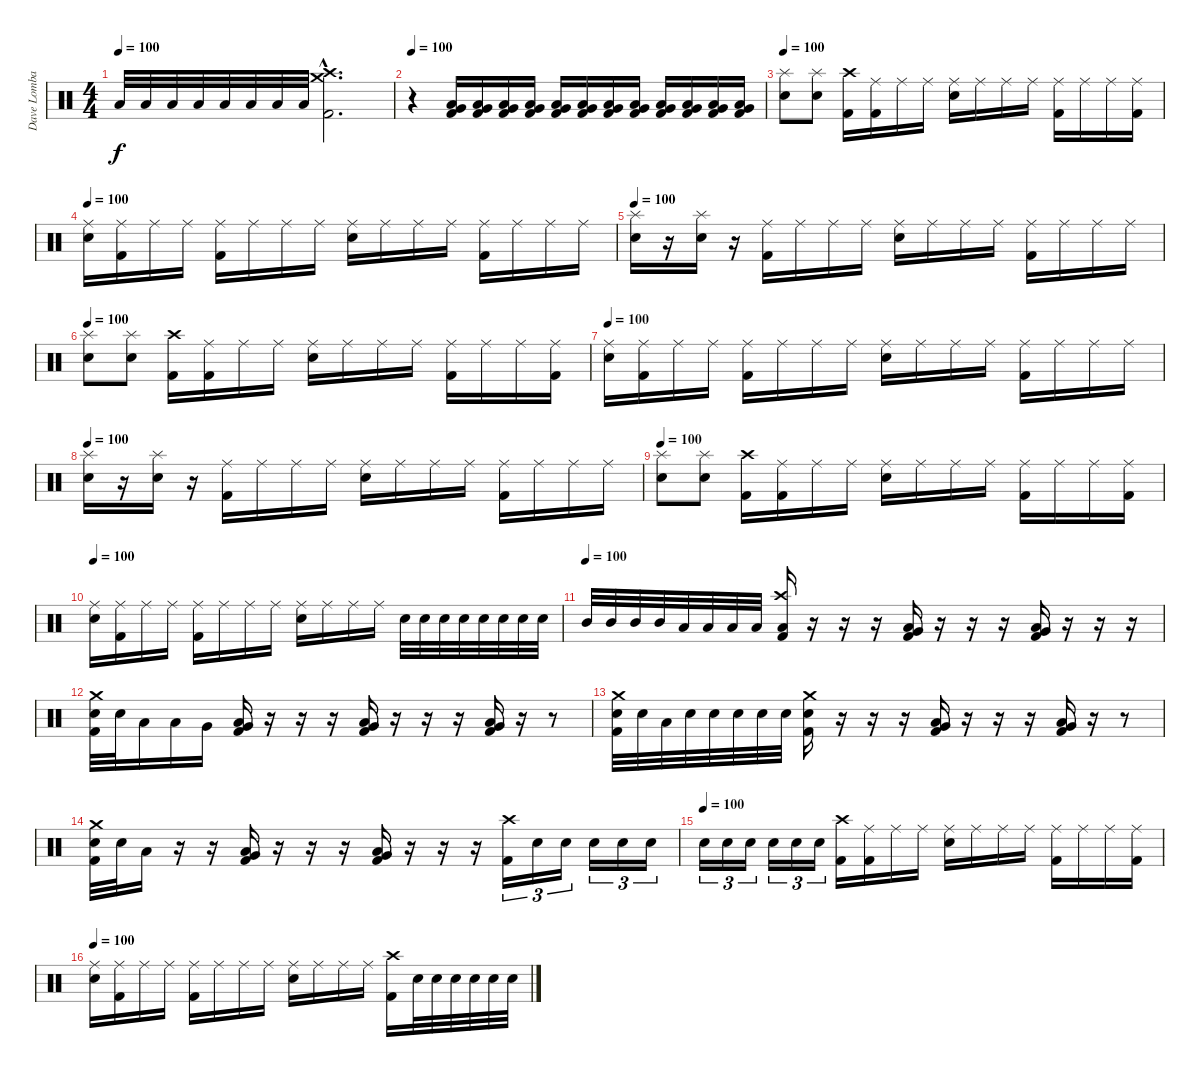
\track ("Dave Lombardo" "Dave Lomba") {instrument percussion}
\staff {score}
\articulation defaults
\ts (4 4)
\tempo 100
\clef neutral
\ks c "Low Floor Tom (hit)".32{dy f} "Low Floor Tom (hit)".32 "Low Floor Tom (hit)".32 "Low Floor Tom (hit)".32 "Low Floor Tom (hit)".32 "Low Floor Tom (hit)".32 "Low Floor Tom (hit)".32 "Low Floor Tom (hit)".32
("Crash high (hit)"{hac} "Crash medium (hit)"{hac} "Kick (hit) 2"{hac}).2{d} |
\tempo 100
r.4 ("Kick (hit) 2" "Low Floor Tom (hit)" "Very Low Tom (hit)").16 ("Kick (hit) 2" "Low Floor Tom (hit)" "Very Low Tom (hit)").16 ("Kick (hit) 2" "Low Floor Tom (hit)" "Very Low Tom (hit)").16 ("Kick (hit) 2" "Low Floor Tom (hit)" "Very Low Tom (hit)").16 ("Kick (hit) 2" "Low Floor Tom (hit)" "Very Low Tom (hit)").16 ("Kick (hit) 2" "Low Floor Tom (hit)" "Very Low Tom (hit)").16 ("Kick (hit) 2" "Low Floor Tom (hit)" "Very Low Tom (hit)").16 ("Kick (hit) 2" "Low Floor Tom (hit)" "Very Low Tom (hit)").16 ("Kick (hit) 2" "Low Floor Tom (hit)" "Very Low Tom (hit)").16 ("Kick (hit) 2" "Low Floor Tom (hit)" "Very Low Tom (hit)").16 ("Kick (hit) 2" "Low Floor Tom (hit)" "Very Low Tom (hit)").16 ("Kick (hit) 2" "Low Floor Tom (hit)" "Very Low Tom (hit)").16 |
\tempo 100
("Splash (hit)" "Electric Snare (hit)").8 ("Splash (hit)" "Electric Snare (hit)").8 ("Kick (hit) 2" "Crash high (hit)").16 ("Kick (hit) 2" "Ride (middle)").16 "Ride (middle)".16 "Ride (middle)".16 ("Electric Snare (hit)" "Ride (middle)").16 "Ride (middle)".16 "Ride (middle)".16 "Ride (middle)".16 ("Kick (hit) 2" "Ride (middle)").16 "Ride (middle)".16 "Ride (middle)".16 ("Kick (hit) 2" "Ride (middle)").16 |
\tempo 100
("Electric Snare (hit)" "Ride (middle)").16 ("Kick (hit) 2" "Ride (middle)").16 "Ride (middle)".16 "Ride (middle)".16 ("Kick (hit) 2" "Ride (middle)").16 "Ride (middle)".16 "Ride (middle)".16 "Ride (middle)".16 ("Electric Snare (hit)" "Ride (middle)").16 "Ride (middle)".16 "Ride (middle)".16 "Ride (middle)".16 ("Kick (hit) 2" "Ride (middle)").16 "Ride (middle)".16 "Ride (middle)".16 "Ride (middle)".16 |
\tempo 100
("Electric Snare (hit)" "Splash (hit)").16 r.16 ("Electric Snare (hit)" "Splash (hit)").16 r.16 ("Kick (hit) 2" "Ride (middle)").16 "Ride (middle)".16 "Ride (middle)".16 "Ride (middle)".16 ("Electric Snare (hit)" "Ride (middle)").16 "Ride (middle)".16 "Ride (middle)".16 "Ride (middle)".16 ("Kick (hit) 2" "Ride (middle)").16 "Ride (middle)".16 "Ride (middle)".16 "Ride (middle)".16 |
\tempo 100
("Splash (hit)" "Electric Snare (hit)").8 ("Splash (hit)" "Electric Snare (hit)").8 ("Kick (hit) 2" "Crash high (hit)").16 ("Kick (hit) 2" "Ride (middle)").16 "Ride (middle)".16 "Ride (middle)".16 ("Electric Snare (hit)" "Ride (middle)").16 "Ride (middle)".16 "Ride (middle)".16 "Ride (middle)".16 ("Kick (hit) 2" "Ride (middle)").16 "Ride (middle)".16 "Ride (middle)".16 ("Kick (hit) 2" "Ride (middle)").16 |
\tempo 100
("Electric Snare (hit)" "Ride (middle)").16 ("Kick (hit) 2" "Ride (middle)").16 "Ride (middle)".16 "Ride (middle)".16 ("Kick (hit) 2" "Ride (middle)").16 "Ride (middle)".16 "Ride (middle)".16 "Ride (middle)".16 ("Electric Snare (hit)" "Ride (middle)").16 "Ride (middle)".16 "Ride (middle)".16 "Ride (middle)".16 ("Kick (hit) 2" "Ride (middle)").16 "Ride (middle)".16 "Ride (middle)".16 "Ride (middle)".16 |
\tempo 100
("Electric Snare (hit)" "Splash (hit)").16 r.16 ("Electric Snare (hit)" "Splash (hit)").16 r.16 ("Kick (hit) 2" "Ride (middle)").16 "Ride (middle)".16 "Ride (middle)".16 "Ride (middle)".16 ("Electric Snare (hit)" "Ride (middle)").16 "Ride (middle)".16 "Ride (middle)".16 "Ride (middle)".16 ("Kick (hit) 2" "Ride (middle)").16 "Ride (middle)".16 "Ride (middle)".16 "Ride (middle)".16 |
\tempo 100
("Splash (hit)" "Electric Snare (hit)").8 ("Splash (hit)" "Electric Snare (hit)").8 ("Kick (hit) 2" "Crash high (hit)").16 ("Kick (hit) 2" "Ride (middle)").16 "Ride (middle)".16 "Ride (middle)".16 ("Electric Snare (hit)" "Ride (middle)").16 "Ride (middle)".16 "Ride (middle)".16 "Ride (middle)".16 ("Kick (hit) 2" "Ride (middle)").16 "Ride (middle)".16 "Ride (middle)".16 ("Kick (hit) 2" "Ride (middle)").16 |
\tempo 100
("Electric Snare (hit)" "Ride (middle)").16 ("Kick (hit) 2" "Ride (middle)").16 "Ride (middle)".16 "Ride (middle)".16 ("Kick (hit) 2" "Ride (middle)").16 "Ride (middle)".16 "Ride (middle)".16 "Ride (middle)".16 ("Electric Snare (hit)" "Ride (middle)").16 "Ride (middle)".16 "Ride (middle)".16 "Ride (middle)".16 "Electric Snare (hit)".32 "Electric Snare (hit)".32 "Electric Snare (hit)".32 "Electric Snare (hit)".32 "Electric Snare (hit)".32 "Electric Snare (hit)".32 "Electric Snare (hit)".32 "Electric Snare (hit)".32 |
\tempo (100)
"Mid Tom (hit)".32 "Mid Tom (hit)".32 "Mid Tom (hit)".32 "Mid Tom (hit)".32 "Low Tom (hit)".32 "Low Tom (hit)".32 "Low Tom (hit)".32 "Low Tom (hit)".32 ("Kick (hit) 2" "Crash high (hit)" "Low Floor Tom (hit)").16 r.16 r.16 r.16 ("Kick (hit) 2" "Low Floor Tom (hit)" "Very Low Tom (hit)").16 r.16 r.16 r.16 ("Low Floor Tom (hit)" "Very Low Tom (hit)" "Kick (hit) 2").16 r.16 r.16 r.16 |
("Crash medium (hit)" "Electric Snare (hit)" "Kick (hit) 2").32 "Electric Snare (hit)".32 "Low Tom (hit)".16 "Low Tom (hit)".16 "Very Low Tom (hit)".16 ("Very Low Tom (hit)" "Low Floor Tom (hit)" "Kick (hit) 2").16 r.16 r.16 r.16 ("Very Low Tom (hit)" "Low Floor Tom (hit)" "Kick (hit) 2").16 r.16 r.16 r.16 ("Very Low Tom (hit)" "Low Floor Tom (hit)" "Kick (hit) 2").16 r.16 r.8 |
("Crash medium (hit)" "Electric Snare (hit)" "Kick (hit) 2").32 "Electric Snare (hit)".32 "Low Tom (hit)".32 "Electric Snare (hit)".32 "Electric Snare (hit)".32 "Electric Snare (hit)".32 "Electric Snare (hit)".32 "Electric Snare (hit)".32 ("Crash medium (hit)" "Electric Snare (hit)" "Kick (hit) 2").16 r.16 r.16 r.16 ("Very Low Tom (hit)" "Low Floor Tom (hit)" "Kick (hit) 2").16 r.16 r.16 r.16 ("Very Low Tom (hit)" "Low Floor Tom (hit)" "Kick (hit) 2").16 r.16 r.8 |
("Crash medium (hit)" "Electric Snare (hit)" "Kick (hit) 2").32 "Electric Snare (hit)".32 "Low Tom (hit)".16 r.16 r.16 ("Very Low Tom (hit)" "Low Floor Tom (hit)" "Kick (hit) 2").16 r.16 r.16 r.16 ("Very Low Tom (hit)" "Low Floor Tom (hit)" "Kick (hit) 2").16 r.16 r.16 r.16 ("Crash high (hit)" "Kick (hit) 2").16{tu (3 2)} "Electric Snare (hit)".16{tu (3 2)} "Electric Snare (hit)".16{tu (3 2)} "Electric Snare (hit)".16{tu (3 2)} "Electric Snare (hit)".16{tu (3 2)} "Electric Snare (hit)".16{tu (3 2)} |
\tempo (100)
"Electric Snare (hit)".16{tu (3 2)} "Electric Snare (hit)".16{tu (3 2)} "Electric Snare (hit)".16{tu (3 2)} "Electric Snare (hit)".16{tu (3 2)} "Electric Snare (hit)".16{tu (3 2)} "Electric Snare (hit)".16{tu (3 2)} ("Kick (hit) 2" "Crash high (hit)").16 ("Kick (hit) 2" "Ride (middle)").16 "Ride (middle)".16 "Ride (middle)".16 ("Electric Snare (hit)" "Ride (middle)").16 "Ride (middle)".16 "Ride (middle)".16 "Ride (middle)".16 ("Kick (hit) 2" "Ride (middle)").16 "Ride (middle)".16 "Ride (middle)".16 ("Kick (hit) 2" "Ride (middle)").16 |
\tempo 100
("Electric Snare (hit)" "Ride (middle)").16 ("Kick (hit) 2" "Ride (middle)").16 "Ride (middle)".16 "Ride (middle)".16 ("Kick (hit) 2" "Ride (middle)").16 "Ride (middle)".16 "Ride (middle)".16 "Ride (middle)".16 ("Electric Snare (hit)" "Ride (middle)").16 "Ride (middle)".16 "Ride (middle)".16 "Ride (middle)".16 ("Kick (hit) 2" "Crash high (hit)").16 "Electric Snare (hit)".32 "Electric Snare (hit)".32 "Electric Snare (hit)".32 "Electric Snare (hit)".32 "Electric Snare (hit)".32 "Electric Snare (hit)".32
